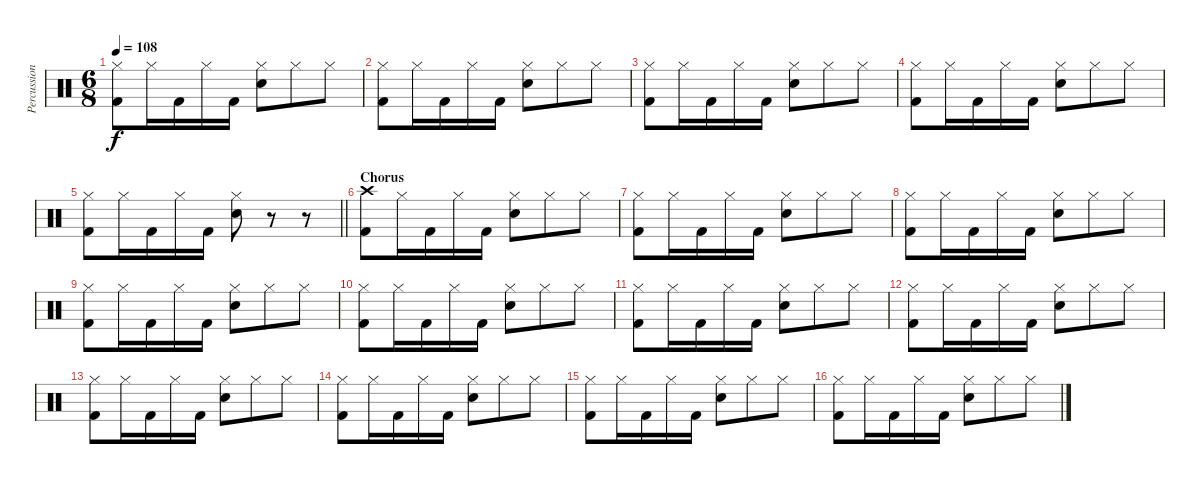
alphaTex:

\track ("Percussions" "Percussion") {instrument percussion}
\staff {score}
\articulation defaults
\ts (6 8)
\tempo 108
\clef neutral
\ks c
("Hi-Hat (closed)" "Kick (hit) 2").8{dy f} "Hi-Hat (closed)".16 "Kick (hit) 2".16 "Hi-Hat (closed)".16 "Kick (hit) 2".16 ("Hi-Hat (closed)" "Electric Snare (hit)").8 "Hi-Hat (closed)".8 "Hi-Hat (closed)".8 |
("Hi-Hat (closed)" "Kick (hit) 2").8 "Hi-Hat (closed)".16 "Kick (hit) 2".16 "Hi-Hat (closed)".16 "Kick (hit) 2".16 ("Hi-Hat (closed)" "Electric Snare (hit)").8 "Hi-Hat (closed)".8 "Hi-Hat (closed)".8 |
("Hi-Hat (closed)" "Kick (hit) 2").8 "Hi-Hat (closed)".16 "Kick (hit) 2".16 "Hi-Hat (closed)".16 "Kick (hit) 2".16 ("Hi-Hat (closed)" "Electric Snare (hit)").8 "Hi-Hat (closed)".8 "Hi-Hat (closed)".8 |
("Hi-Hat (closed)" "Kick (hit) 2").8 "Hi-Hat (closed)".16 "Kick (hit) 2".16 "Hi-Hat (closed)".16 "Kick (hit) 2".16 ("Hi-Hat (closed)" "Electric Snare (hit)").8 "Hi-Hat (closed)".8 "Hi-Hat (closed)".8 |
\barLineRight lightlight
("Hi-Hat (closed)" "Kick (hit) 2").8 "Hi-Hat (closed)".16 "Kick (hit) 2".16 "Hi-Hat (closed)".16 "Kick (hit) 2".16 ("Hi-Hat (closed)" "Electric Snare (hit)").8 r.8 r.8 |
\section ("" "Chorus")
("Crash high (hit)" "Kick (hit) 2").8 "Hi-Hat (closed)".16 "Kick (hit) 2".16 "Hi-Hat (closed)".16 "Kick (hit) 2".16 ("Hi-Hat (closed)" "Electric Snare (hit)").8 "Hi-Hat (closed)".8 "Hi-Hat (closed)".8 |
("Hi-Hat (closed)" "Kick (hit) 2").8 "Hi-Hat (closed)".16 "Kick (hit) 2".16 "Hi-Hat (closed)".16 "Kick (hit) 2".16 ("Hi-Hat (closed)" "Electric Snare (hit)").8 "Hi-Hat (closed)".8 "Hi-Hat (closed)".8 |
("Hi-Hat (closed)" "Kick (hit) 2").8 "Hi-Hat (closed)".16 "Kick (hit) 2".16 "Hi-Hat (closed)".16 "Kick (hit) 2".16 ("Hi-Hat (closed)" "Electric Snare (hit)").8 "Hi-Hat (closed)".8 "Hi-Hat (closed)".8 |
("Hi-Hat (closed)" "Kick (hit) 2").8 "Hi-Hat (closed)".16 "Kick (hit) 2".16 "Hi-Hat (closed)".16 "Kick (hit) 2".16 ("Hi-Hat (closed)" "Electric Snare (hit)").8 "Hi-Hat (closed)".8 "Hi-Hat (closed)".8 |
("Hi-Hat (closed)" "Kick (hit) 2").8 "Hi-Hat (closed)".16 "Kick (hit) 2".16 "Hi-Hat (closed)".16 "Kick (hit) 2".16 ("Hi-Hat (closed)" "Electric Snare (hit)").8 "Hi-Hat (closed)".8 "Hi-Hat (closed)".8 |
("Hi-Hat (closed)" "Kick (hit) 2").8 "Hi-Hat (closed)".16 "Kick (hit) 2".16 "Hi-Hat (closed)".16 "Kick (hit) 2".16 ("Hi-Hat (closed)" "Electric Snare (hit)").8 "Hi-Hat (closed)".8 "Hi-Hat (closed)".8 |
("Hi-Hat (closed)" "Kick (hit) 2").8 "Hi-Hat (closed)".16 "Kick (hit) 2".16 "Hi-Hat (closed)".16 "Kick (hit) 2".16 ("Hi-Hat (closed)" "Electric Snare (hit)").8 "Hi-Hat (closed)".8 "Hi-Hat (closed)".8 |
("Hi-Hat (closed)" "Kick (hit) 2").8 "Hi-Hat (closed)".16 "Kick (hit) 2".16 "Hi-Hat (closed)".16 "Kick (hit) 2".16 ("Hi-Hat (closed)" "Electric Snare (hit)").8 "Hi-Hat (closed)".8 "Hi-Hat (closed)".8 |
("Hi-Hat (closed)" "Kick (hit) 2").8 "Hi-Hat (closed)".16 "Kick (hit) 2".16 "Hi-Hat (closed)".16 "Kick (hit) 2".16 ("Hi-Hat (closed)" "Electric Snare (hit)").8 "Hi-Hat (closed)".8 "Hi-Hat (closed)".8 |
("Hi-Hat (closed)" "Kick (hit) 2").8 "Hi-Hat (closed)".16 "Kick (hit) 2".16 "Hi-Hat (closed)".16 "Kick (hit) 2".16 ("Hi-Hat (closed)" "Electric Snare (hit)").8 "Hi-Hat (closed)".8 "Hi-Hat (closed)".8 |
("Hi-Hat (closed)" "Kick (hit) 2").8 "Hi-Hat (closed)".16 "Kick (hit) 2".16 "Hi-Hat (closed)".16 "Kick (hit) 2".16 ("Hi-Hat (closed)" "Electric Snare (hit)").8 "Hi-Hat (closed)".8 "Hi-Hat (closed)".8
